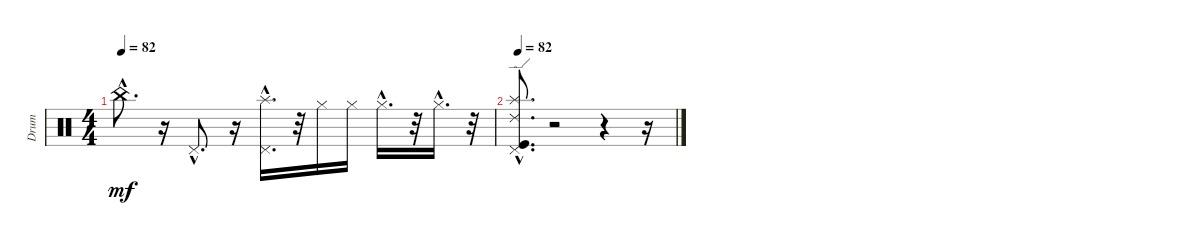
\track ("Drum" "Drum") {instrument percussion}
\staff {score}
\articulation defaults
\ts (4 4)
\tempo 82
\clef neutral
\ks c "China (hit)"{hac}.8{d dy mf}
r.16 "Pedal Hi-Hat (hit)"{hac}.8{d} r.16 ("Pedal Hi-Hat (hit)"{hac} "Splash (hit)"{hac}).16{d} r.32 "Hi-Hat (closed)".16 "Hi-Hat (closed)".16 "Hi-Hat (closed)"{hac}.16{d} r.32 "Hi-Hat (closed)"{hac}.16{d} r.32 |
\tempo 82
("Kick (hit)"{hac} "Pedal Hi-Hat (hit)"{hac} "Splash (hit)"{hac} "Ride (edge) 2"{hac}).8{d} r.2 r.4 r.16
